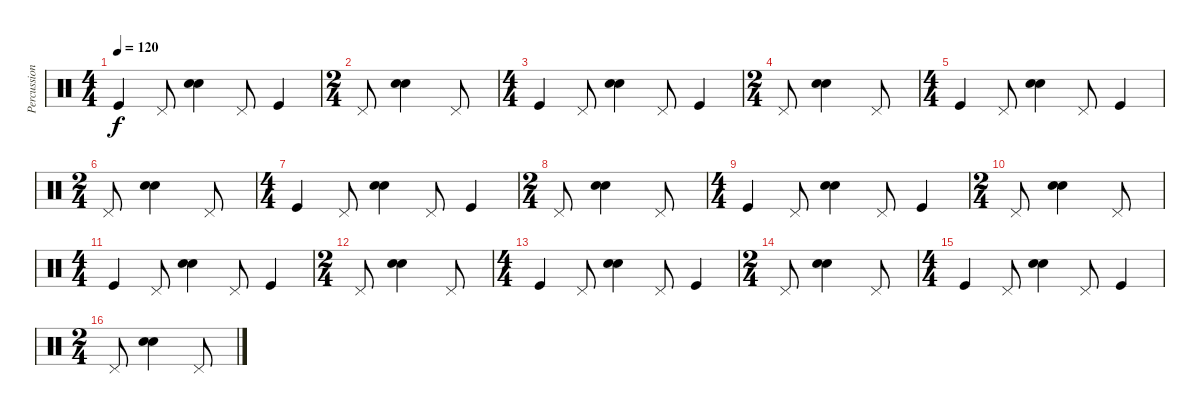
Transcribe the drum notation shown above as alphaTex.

\track ("Percussions" "Percussion") {instrument percussion}
\staff {score}
\articulation defaults
\ts (4 4)
\tempo 120
\clef neutral
\ks c "Kick (hit)".4{dy f volume 0} "Pedal Hi-Hat (hit)".8{volume 7}
("Snare (hit) 2" "Electric Snare (hit)").4{bu 240} "Pedal Hi-Hat (hit)".8 "Kick (hit)".4 |
\ts (2 4)
"Pedal Hi-Hat (hit)".8 ("Snare (hit) 2" "Electric Snare (hit)").4{bu 240} "Pedal Hi-Hat (hit)".8 |
\ts (4 4)
"Kick (hit)".4 "Pedal Hi-Hat (hit)".8 ("Snare (hit) 2" "Electric Snare (hit)").4{bu 240} "Pedal Hi-Hat (hit)".8 "Kick (hit)".4 |
\ts (2 4)
"Pedal Hi-Hat (hit)".8 ("Snare (hit) 2" "Electric Snare (hit)").4{bu 240} "Pedal Hi-Hat (hit)".8 |
\ts (4 4)
"Kick (hit)".4 "Pedal Hi-Hat (hit)".8 ("Snare (hit) 2" "Electric Snare (hit)").4{bu 240} "Pedal Hi-Hat (hit)".8 "Kick (hit)".4 |
\ts (2 4)
"Pedal Hi-Hat (hit)".8 ("Snare (hit) 2" "Electric Snare (hit)").4{bu 240} "Pedal Hi-Hat (hit)".8 |
\ts (4 4)
"Kick (hit)".4 "Pedal Hi-Hat (hit)".8 ("Snare (hit) 2" "Electric Snare (hit)").4{bu 240} "Pedal Hi-Hat (hit)".8 "Kick (hit)".4 |
\ts (2 4)
"Pedal Hi-Hat (hit)".8 ("Snare (hit) 2" "Electric Snare (hit)").4{bu 240} "Pedal Hi-Hat (hit)".8 |
\ts (4 4)
"Kick (hit)".4 "Pedal Hi-Hat (hit)".8 ("Snare (hit) 2" "Electric Snare (hit)").4{bu 240} "Pedal Hi-Hat (hit)".8 "Kick (hit)".4 |
\ts (2 4)
"Pedal Hi-Hat (hit)".8 ("Snare (hit) 2" "Electric Snare (hit)").4{bu 240} "Pedal Hi-Hat (hit)".8 |
\ts (4 4)
"Kick (hit)".4 "Pedal Hi-Hat (hit)".8 ("Snare (hit) 2" "Electric Snare (hit)").4{bu 240} "Pedal Hi-Hat (hit)".8 "Kick (hit)".4 |
\ts (2 4)
"Pedal Hi-Hat (hit)".8 ("Snare (hit) 2" "Electric Snare (hit)").4{bu 240} "Pedal Hi-Hat (hit)".8 |
\ts (4 4)
"Kick (hit)".4 "Pedal Hi-Hat (hit)".8 ("Snare (hit) 2" "Electric Snare (hit)").4{bu 240} "Pedal Hi-Hat (hit)".8 "Kick (hit)".4 |
\ts (2 4)
"Pedal Hi-Hat (hit)".8 ("Snare (hit) 2" "Electric Snare (hit)").4{bu 240} "Pedal Hi-Hat (hit)".8 |
\ts (4 4)
"Kick (hit)".4 "Pedal Hi-Hat (hit)".8 ("Snare (hit) 2" "Electric Snare (hit)").4{bu 240} "Pedal Hi-Hat (hit)".8 "Kick (hit)".4 |
\ts (2 4)
"Pedal Hi-Hat (hit)".8 ("Snare (hit) 2" "Electric Snare (hit)").4{bu 240} "Pedal Hi-Hat (hit)".8
